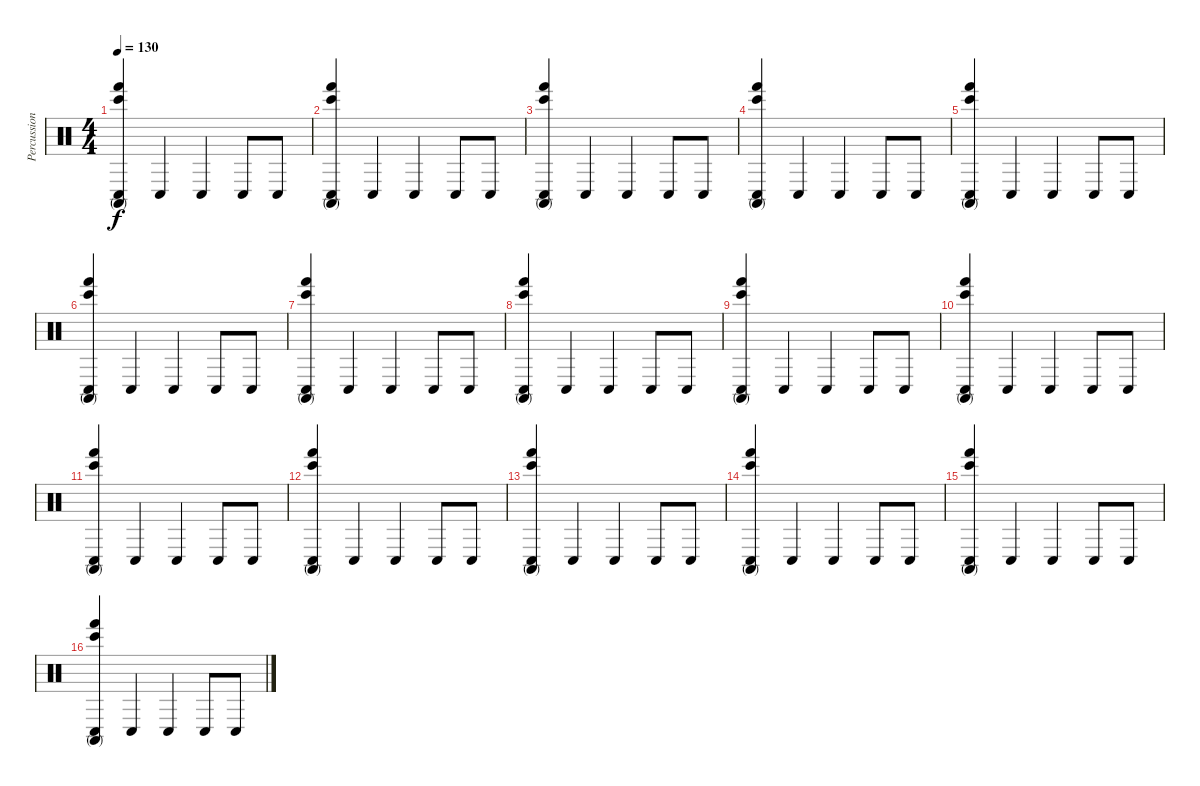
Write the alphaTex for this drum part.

\track ("Percussions" "Percussion") {instrument percussion}
\staff {score}
\articulation defaults
\ts (4 4)
\tempo 130
\clef neutral
\ks c
("Conga low (hit)" "Hand (hit)" "Bongo High (hit)" "Conga high (mute)").4{dy f} "Conga low (hit)".4 "Conga low (hit)".4 "Conga low (hit)".8 "Conga low (hit)".8 |
("Conga low (hit)" "Hand (hit)" "Bongo High (hit)" "Conga high (mute)").4 "Conga low (hit)".4 "Conga low (hit)".4 "Conga low (hit)".8 "Conga low (hit)".8 |
("Conga low (hit)" "Hand (hit)" "Bongo High (hit)" "Conga high (mute)").4 "Conga low (hit)".4 "Conga low (hit)".4 "Conga low (hit)".8 "Conga low (hit)".8 |
("Conga low (hit)" "Hand (hit)" "Bongo High (hit)" "Conga high (mute)").4 "Conga low (hit)".4 "Conga low (hit)".4 "Conga low (hit)".8 "Conga low (hit)".8 |
("Conga low (hit)" "Hand (hit)" "Bongo High (hit)" "Conga high (mute)").4 "Conga low (hit)".4 "Conga low (hit)".4 "Conga low (hit)".8 "Conga low (hit)".8 |
("Conga low (hit)" "Hand (hit)" "Bongo High (hit)" "Conga high (mute)").4 "Conga low (hit)".4 "Conga low (hit)".4 "Conga low (hit)".8 "Conga low (hit)".8 |
("Conga low (hit)" "Hand (hit)" "Bongo High (hit)" "Conga high (mute)").4 "Conga low (hit)".4 "Conga low (hit)".4 "Conga low (hit)".8 "Conga low (hit)".8 |
("Conga low (hit)" "Hand (hit)" "Bongo High (hit)" "Conga high (mute)").4 "Conga low (hit)".4 "Conga low (hit)".4 "Conga low (hit)".8 "Conga low (hit)".8 |
("Conga low (hit)" "Hand (hit)" "Bongo High (hit)" "Conga high (mute)").4 "Conga low (hit)".4 "Conga low (hit)".4 "Conga low (hit)".8 "Conga low (hit)".8 |
("Conga low (hit)" "Hand (hit)" "Bongo High (hit)" "Conga high (mute)").4 "Conga low (hit)".4 "Conga low (hit)".4 "Conga low (hit)".8 "Conga low (hit)".8 |
("Conga low (hit)" "Hand (hit)" "Bongo High (hit)" "Conga high (mute)").4 "Conga low (hit)".4 "Conga low (hit)".4 "Conga low (hit)".8 "Conga low (hit)".8 |
("Conga low (hit)" "Hand (hit)" "Bongo High (hit)" "Conga high (mute)").4 "Conga low (hit)".4 "Conga low (hit)".4 "Conga low (hit)".8 "Conga low (hit)".8 |
("Conga low (hit)" "Hand (hit)" "Bongo High (hit)" "Conga high (mute)").4 "Conga low (hit)".4 "Conga low (hit)".4 "Conga low (hit)".8 "Conga low (hit)".8 |
("Conga low (hit)" "Hand (hit)" "Bongo High (hit)" "Conga high (mute)").4 "Conga low (hit)".4 "Conga low (hit)".4 "Conga low (hit)".8 "Conga low (hit)".8 |
("Conga low (hit)" "Hand (hit)" "Bongo High (hit)" "Conga high (mute)").4 "Conga low (hit)".4 "Conga low (hit)".4 "Conga low (hit)".8 "Conga low (hit)".8 |
("Conga low (hit)" "Hand (hit)" "Bongo High (hit)" "Conga high (mute)").4 "Conga low (hit)".4 "Conga low (hit)".4 "Conga low (hit)".8 "Conga low (hit)".8
